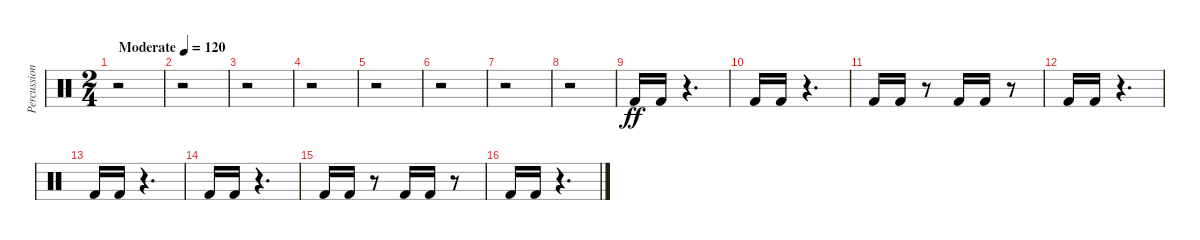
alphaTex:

\track ("Percussion" "Percussion") {instrument percussion}
\staff {score}
\articulation defaults
\ts (2 4)
\tempo (120 "Moderate")
\clef neutral
\ks c
r.2{dy ff} |
r.2 |
r.2 |
r.2 |
r.2 |
r.2 |
r.2 |
r.2 |
"Kick (hit) 2".16 "Kick (hit) 2".16 r.4{d} |
"Kick (hit) 2".16 "Kick (hit) 2".16 r.4{d} |
"Kick (hit) 2".16 "Kick (hit) 2".16 r.8 "Kick (hit) 2".16 "Kick (hit) 2".16 r.8 |
"Kick (hit) 2".16 "Kick (hit) 2".16 r.4{d} |
"Kick (hit) 2".16 "Kick (hit) 2".16 r.4{d} |
"Kick (hit) 2".16 "Kick (hit) 2".16 r.4{d} |
"Kick (hit) 2".16 "Kick (hit) 2".16 r.8 "Kick (hit) 2".16 "Kick (hit) 2".16 r.8 |
"Kick (hit) 2".16 "Kick (hit) 2".16 r.4{d}
